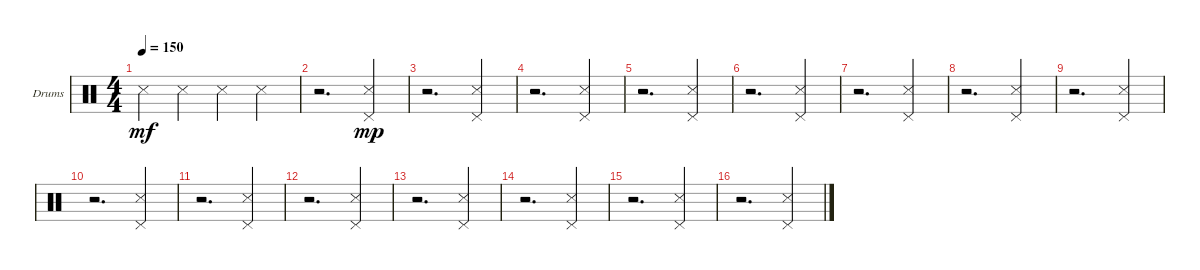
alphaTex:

\defaultSystemsLayout 4
\bracketExtendMode groupsimilarinstruments
\firstSystemTrackNameOrientation horizontal
\otherSystemsTrackNameOrientation horizontal
\track ("Drums" "Drums") {instrument percussion}
\staff {score}
\articulation defaults
\ts (4 4)
\tempo 150
\clef neutral
\ks c "Snare (side stick) 3".4{dy mf} "Snare (side stick) 3".4 "Snare (side stick) 3".4 "Snare (side stick) 3".4
|
r.2{d} ("Snare (side stick) 3" "Pedal Hi-Hat (hit)").4{dy mp} |
r.2{d} ("Snare (side stick) 3" "Pedal Hi-Hat (hit)").4 |
r.2{d} ("Snare (side stick) 3" "Pedal Hi-Hat (hit)").4 |
r.2{d} ("Snare (side stick) 3" "Pedal Hi-Hat (hit)").4 |
r.2{d} ("Snare (side stick) 3" "Pedal Hi-Hat (hit)").4 |
r.2{d} ("Snare (side stick) 3" "Pedal Hi-Hat (hit)").4 |
r.2{d} ("Snare (side stick) 3" "Pedal Hi-Hat (hit)").4 |
r.2{d} ("Snare (side stick) 3" "Pedal Hi-Hat (hit)").4 |
r.2{d} ("Snare (side stick) 3" "Pedal Hi-Hat (hit)").4 |
r.2{d} ("Snare (side stick) 3" "Pedal Hi-Hat (hit)").4 |
r.2{d} ("Snare (side stick) 3" "Pedal Hi-Hat (hit)").4 |
r.2{d} ("Snare (side stick) 3" "Pedal Hi-Hat (hit)").4 |
r.2{d} ("Snare (side stick) 3" "Pedal Hi-Hat (hit)").4 |
r.2{d} ("Snare (side stick) 3" "Pedal Hi-Hat (hit)").4 |
r.2{d} ("Snare (side stick) 3" "Pedal Hi-Hat (hit)").4
